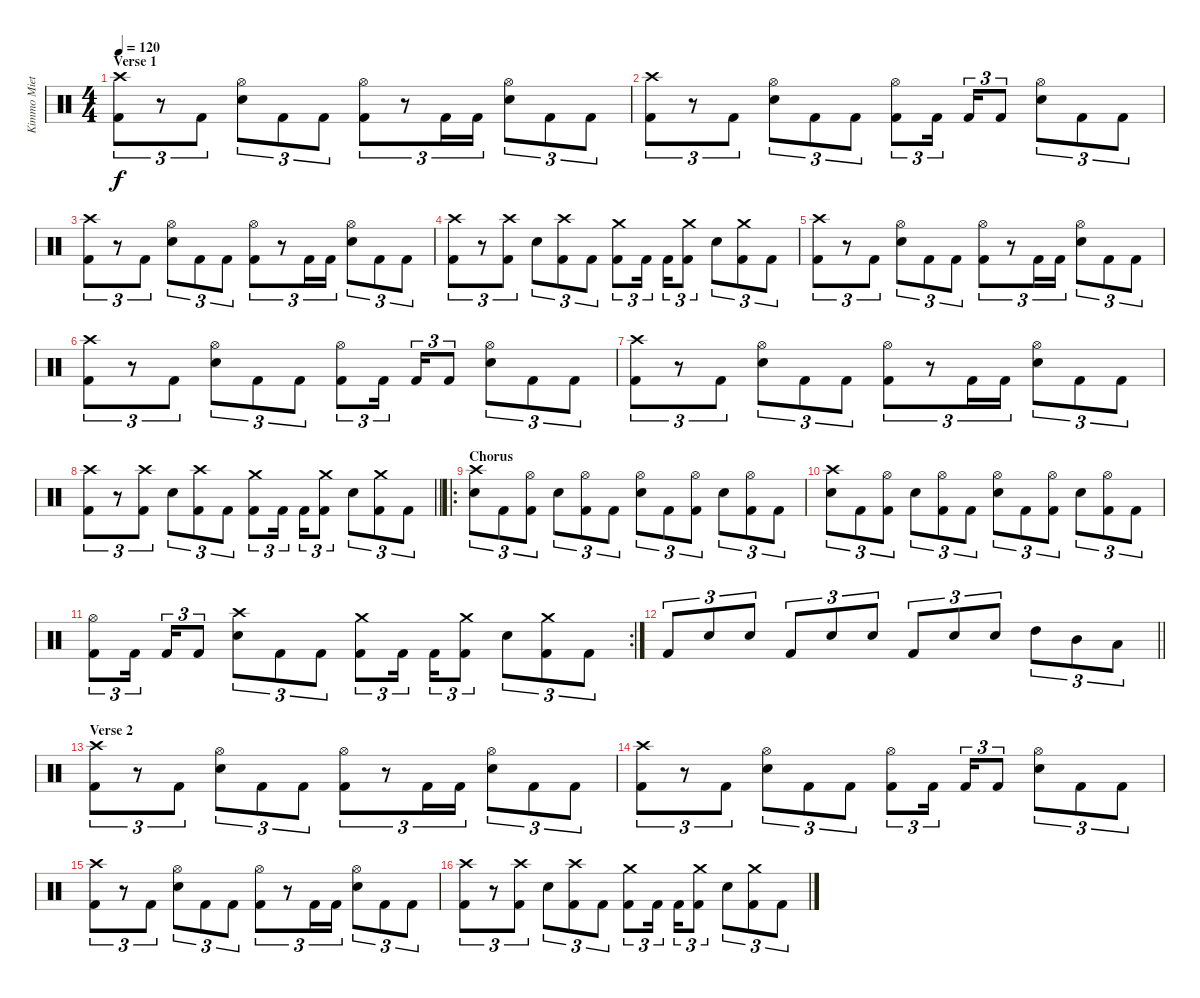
\track ("Kimmo Miettinen" "Kimmo Miet") {instrument percussion}
\staff {score}
\articulation defaults
\ts (4 4)
\section ("" "Verse 1")
\tempo 120
\clef neutral
\ks c
("Crash high (hit)" "Kick (hit) 2").8{tu (3 2) dy f} r.8{tu (3 2)} "Kick (hit) 2".8{tu (3 2)} ("Hi-Hat (open)" "Electric Snare (hit)").8{tu (3 2)} "Kick (hit) 2".8{tu (3 2)} "Kick (hit) 2".8{tu (3 2)} ("Hi-Hat (open)" "Kick (hit) 2").8{tu (3 2)} r.8{tu (3 2)} "Kick (hit) 2".16{tu (3 2)} "Kick (hit) 2".16{tu (3 2)} ("Hi-Hat (open)" "Electric Snare (hit)").8{tu (3 2)} "Kick (hit) 2".8{tu (3 2)} "Kick (hit) 2".8{tu (3 2)} |
("Crash high (hit)" "Kick (hit) 2").8{tu (3 2)} r.8{tu (3 2)} "Kick (hit) 2".8{tu (3 2)} ("Hi-Hat (open)" "Electric Snare (hit)").8{tu (3 2)} "Kick (hit) 2".8{tu (3 2)} "Kick (hit) 2".8{tu (3 2)} ("Hi-Hat (open)" "Kick (hit) 2").8{tu (3 2)} "Kick (hit) 2".16{tu (3 2) beam splitsecondary} "Kick (hit) 2".16{tu (3 2)} "Kick (hit) 2".8{tu (3 2)} ("Hi-Hat (open)" "Electric Snare (hit)").8{tu (3 2)} "Kick (hit) 2".8{tu (3 2)} "Kick (hit) 2".8{tu (3 2)} |
("Crash high (hit)" "Kick (hit) 2").8{tu (3 2)} r.8{tu (3 2)} "Kick (hit) 2".8{tu (3 2)} ("Hi-Hat (open)" "Electric Snare (hit)").8{tu (3 2)} "Kick (hit) 2".8{tu (3 2)} "Kick (hit) 2".8{tu (3 2)} ("Hi-Hat (open)" "Kick (hit) 2").8{tu (3 2)} r.8{tu (3 2)} "Kick (hit) 2".16{tu (3 2)} "Kick (hit) 2".16{tu (3 2)} ("Hi-Hat (open)" "Electric Snare (hit)").8{tu (3 2)} "Kick (hit) 2".8{tu (3 2)} "Kick (hit) 2".8{tu (3 2)} |
("Crash high (hit)" "Kick (hit) 2").8{tu (3 2)} r.8{tu (3 2)} ("Crash high (hit)" "Kick (hit) 2").8{tu (3 2)} "Electric Snare (hit)".8{tu (3 2)} ("Crash high (hit)" "Kick (hit) 2").8{tu (3 2)} "Kick (hit) 2".8{tu (3 2)} ("Crash medium (hit)" "Kick (hit) 2").8{tu (3 2)} "Kick (hit) 2".16{tu (3 2) beam splitsecondary} "Kick (hit) 2".16{tu (3 2)} ("Crash medium (hit)" "Kick (hit) 2").8{tu (3 2)} "Electric Snare (hit)".8{tu (3 2)} ("Crash medium (hit)" "Kick (hit) 2").8{tu (3 2)} "Kick (hit) 2".8{tu (3 2)} |
("Crash high (hit)" "Kick (hit) 2").8{tu (3 2)} r.8{tu (3 2)} "Kick (hit) 2".8{tu (3 2)} ("Hi-Hat (open)" "Electric Snare (hit)").8{tu (3 2)} "Kick (hit) 2".8{tu (3 2)} "Kick (hit) 2".8{tu (3 2)} ("Hi-Hat (open)" "Kick (hit) 2").8{tu (3 2)} r.8{tu (3 2)} "Kick (hit) 2".16{tu (3 2)} "Kick (hit) 2".16{tu (3 2)} ("Hi-Hat (open)" "Electric Snare (hit)").8{tu (3 2)} "Kick (hit) 2".8{tu (3 2)} "Kick (hit) 2".8{tu (3 2)} |
("Crash high (hit)" "Kick (hit) 2").8{tu (3 2)} r.8{tu (3 2)} "Kick (hit) 2".8{tu (3 2)} ("Hi-Hat (open)" "Electric Snare (hit)").8{tu (3 2)} "Kick (hit) 2".8{tu (3 2)} "Kick (hit) 2".8{tu (3 2)} ("Hi-Hat (open)" "Kick (hit) 2").8{tu (3 2)} "Kick (hit) 2".16{tu (3 2) beam splitsecondary} "Kick (hit) 2".16{tu (3 2)} "Kick (hit) 2".8{tu (3 2)} ("Hi-Hat (open)" "Electric Snare (hit)").8{tu (3 2)} "Kick (hit) 2".8{tu (3 2)} "Kick (hit) 2".8{tu (3 2)} |
("Crash high (hit)" "Kick (hit) 2").8{tu (3 2)} r.8{tu (3 2)} "Kick (hit) 2".8{tu (3 2)} ("Hi-Hat (open)" "Electric Snare (hit)").8{tu (3 2)} "Kick (hit) 2".8{tu (3 2)} "Kick (hit) 2".8{tu (3 2)} ("Hi-Hat (open)" "Kick (hit) 2").8{tu (3 2)} r.8{tu (3 2)} "Kick (hit) 2".16{tu (3 2)} "Kick (hit) 2".16{tu (3 2)} ("Hi-Hat (open)" "Electric Snare (hit)").8{tu (3 2)} "Kick (hit) 2".8{tu (3 2)} "Kick (hit) 2".8{tu (3 2)} |
\barLineRight lightlight
("Crash high (hit)" "Kick (hit) 2").8{tu (3 2)} r.8{tu (3 2)} ("Crash high (hit)" "Kick (hit) 2").8{tu (3 2)} "Electric Snare (hit)".8{tu (3 2)} ("Crash high (hit)" "Kick (hit) 2").8{tu (3 2)} "Kick (hit) 2".8{tu (3 2)} ("Crash medium (hit)" "Kick (hit) 2").8{tu (3 2)} "Kick (hit) 2".16{tu (3 2) beam splitsecondary} "Kick (hit) 2".16{tu (3 2)} ("Crash medium (hit)" "Kick (hit) 2").8{tu (3 2)} "Electric Snare (hit)".8{tu (3 2)} ("Crash medium (hit)" "Kick (hit) 2").8{tu (3 2)} "Kick (hit) 2".8{tu (3 2)} |
\ro
\section ("" "Chorus")
("Crash high (hit)" "Electric Snare (hit)").8{tu (3 2)} "Kick (hit) 2".8{tu (3 2)} ("Hi-Hat (open)" "Kick (hit) 2").8{tu (3 2)} "Electric Snare (hit)".8{tu (3 2)} ("Hi-Hat (open)" "Kick (hit) 2").8{tu (3 2)} "Kick (hit) 2".8{tu (3 2)} ("Hi-Hat (open)" "Electric Snare (hit)").8{tu (3 2)} "Kick (hit) 2".8{tu (3 2)} ("Hi-Hat (open)" "Kick (hit) 2").8{tu (3 2)} "Electric Snare (hit)".8{tu (3 2)} ("Hi-Hat (open)" "Kick (hit) 2").8{tu (3 2)} "Kick (hit) 2".8{tu (3 2)} |
("Crash high (hit)" "Electric Snare (hit)").8{tu (3 2)} "Kick (hit) 2".8{tu (3 2)} ("Hi-Hat (open)" "Kick (hit) 2").8{tu (3 2)} "Electric Snare (hit)".8{tu (3 2)} ("Hi-Hat (open)" "Kick (hit) 2").8{tu (3 2)} "Kick (hit) 2".8{tu (3 2)} ("Hi-Hat (open)" "Electric Snare (hit)").8{tu (3 2)} "Kick (hit) 2".8{tu (3 2)} ("Hi-Hat (open)" "Kick (hit) 2").8{tu (3 2)} "Electric Snare (hit)".8{tu (3 2)} ("Hi-Hat (open)" "Kick (hit) 2").8{tu (3 2)} "Kick (hit) 2".8{tu (3 2)} |
\rc 2
("Hi-Hat (open)" "Kick (hit) 2").8{tu (3 2)} "Kick (hit) 2".16{tu (3 2) beam splitsecondary} "Kick (hit) 2".16{tu (3 2)} "Kick (hit) 2".8{tu (3 2)} ("Crash high (hit)" "Electric Snare (hit)").8{tu (3 2)} "Kick (hit) 2".8{tu (3 2)} "Kick (hit) 2".8{tu (3 2)} ("Crash medium (hit)" "Kick (hit) 2").8{tu (3 2)} "Kick (hit) 2".16{tu (3 2) beam splitsecondary} "Kick (hit) 2".16{tu (3 2)} ("Crash medium (hit)" "Kick (hit) 2").8{tu (3 2)} "Electric Snare (hit)".8{tu (3 2)} ("Crash medium (hit)" "Kick (hit) 2").8{tu (3 2)} "Kick (hit) 2".8{tu (3 2)} |
\barLineRight lightlight "Kick (hit) 2".8{tu (3 2)} "Electric Snare (hit)".8{tu (3 2)} "Electric Snare (hit)".8{tu (3 2)} "Kick (hit) 2".8{tu (3 2)} "Electric Snare (hit)".8{tu (3 2)} "Electric Snare (hit)".8{tu (3 2)} "Kick (hit) 2".8{tu (3 2)} "Electric Snare (hit)".8{tu (3 2)} "Electric Snare (hit)".8{tu (3 2)} "High Tom (hit)".8{tu (3 2)} "Mid Tom (hit)".8{tu (3 2)} "Low Tom (hit)".8{tu (3 2)}
|
\section ("" "Verse 2")
("Crash high (hit)" "Kick (hit) 2").8{tu (3 2)} r.8{tu (3 2)} "Kick (hit) 2".8{tu (3 2)} ("Hi-Hat (open)" "Electric Snare (hit)").8{tu (3 2)} "Kick (hit) 2".8{tu (3 2)} "Kick (hit) 2".8{tu (3 2)} ("Hi-Hat (open)" "Kick (hit) 2").8{tu (3 2)} r.8{tu (3 2)} "Kick (hit) 2".16{tu (3 2)} "Kick (hit) 2".16{tu (3 2)} ("Hi-Hat (open)" "Electric Snare (hit)").8{tu (3 2)} "Kick (hit) 2".8{tu (3 2)} "Kick (hit) 2".8{tu (3 2)} |
("Crash high (hit)" "Kick (hit) 2").8{tu (3 2)} r.8{tu (3 2)} "Kick (hit) 2".8{tu (3 2)} ("Hi-Hat (open)" "Electric Snare (hit)").8{tu (3 2)} "Kick (hit) 2".8{tu (3 2)} "Kick (hit) 2".8{tu (3 2)} ("Hi-Hat (open)" "Kick (hit) 2").8{tu (3 2)} "Kick (hit) 2".16{tu (3 2) beam splitsecondary} "Kick (hit) 2".16{tu (3 2)} "Kick (hit) 2".8{tu (3 2)} ("Hi-Hat (open)" "Electric Snare (hit)").8{tu (3 2)} "Kick (hit) 2".8{tu (3 2)} "Kick (hit) 2".8{tu (3 2)} |
("Crash high (hit)" "Kick (hit) 2").8{tu (3 2)} r.8{tu (3 2)} "Kick (hit) 2".8{tu (3 2)} ("Hi-Hat (open)" "Electric Snare (hit)").8{tu (3 2)} "Kick (hit) 2".8{tu (3 2)} "Kick (hit) 2".8{tu (3 2)} ("Hi-Hat (open)" "Kick (hit) 2").8{tu (3 2)} r.8{tu (3 2)} "Kick (hit) 2".16{tu (3 2)} "Kick (hit) 2".16{tu (3 2)} ("Hi-Hat (open)" "Electric Snare (hit)").8{tu (3 2)} "Kick (hit) 2".8{tu (3 2)} "Kick (hit) 2".8{tu (3 2)} |
("Crash high (hit)" "Kick (hit) 2").8{tu (3 2)} r.8{tu (3 2)} ("Crash high (hit)" "Kick (hit) 2").8{tu (3 2)} "Electric Snare (hit)".8{tu (3 2)} ("Crash high (hit)" "Kick (hit) 2").8{tu (3 2)} "Kick (hit) 2".8{tu (3 2)} ("Crash medium (hit)" "Kick (hit) 2").8{tu (3 2)} "Kick (hit) 2".16{tu (3 2) beam splitsecondary} "Kick (hit) 2".16{tu (3 2)} ("Crash medium (hit)" "Kick (hit) 2").8{tu (3 2)} "Electric Snare (hit)".8{tu (3 2)} ("Crash medium (hit)" "Kick (hit) 2").8{tu (3 2)} "Kick (hit) 2".8{tu (3 2)}
